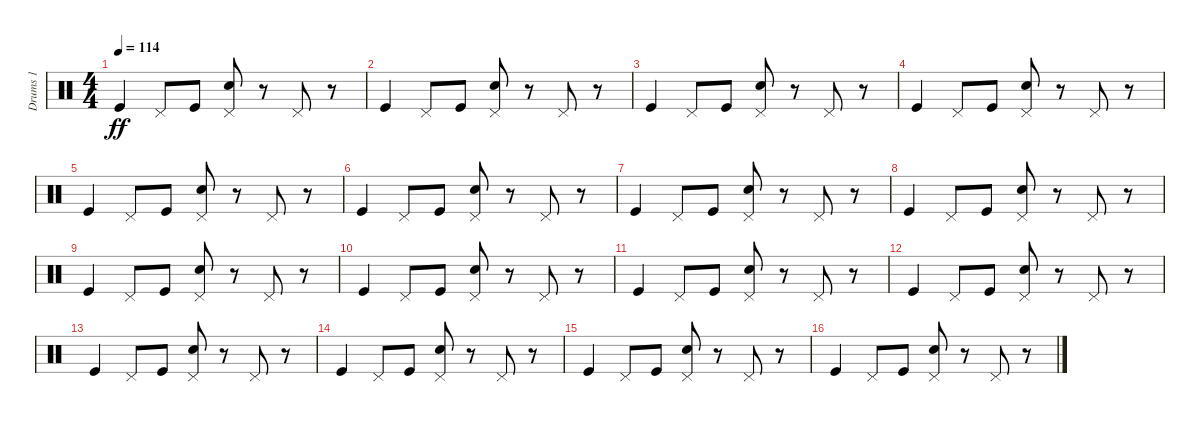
\track ("Drums 1" "Drums 1") {instrument percussion}
\staff {score}
\articulation defaults
\ts (4 4)
\tempo 114
\clef neutral
\ks c "Kick (hit)".4{dy ff} "Pedal Hi-Hat (hit)".8 "Kick (hit)".8
("Electric Snare (hit)" "Pedal Hi-Hat (hit)").8 r.8 "Pedal Hi-Hat (hit)".8 r.8 |
"Kick (hit)".4 "Pedal Hi-Hat (hit)".8 "Kick (hit)".8 ("Electric Snare (hit)" "Pedal Hi-Hat (hit)").8 r.8 "Pedal Hi-Hat (hit)".8 r.8 |
"Kick (hit)".4 "Pedal Hi-Hat (hit)".8 "Kick (hit)".8 ("Electric Snare (hit)" "Pedal Hi-Hat (hit)").8 r.8 "Pedal Hi-Hat (hit)".8 r.8 |
"Kick (hit)".4 "Pedal Hi-Hat (hit)".8 "Kick (hit)".8 ("Electric Snare (hit)" "Pedal Hi-Hat (hit)").8 r.8 "Pedal Hi-Hat (hit)".8 r.8 |
"Kick (hit)".4 "Pedal Hi-Hat (hit)".8 "Kick (hit)".8 ("Electric Snare (hit)" "Pedal Hi-Hat (hit)").8 r.8 "Pedal Hi-Hat (hit)".8 r.8 |
"Kick (hit)".4 "Pedal Hi-Hat (hit)".8 "Kick (hit)".8 ("Electric Snare (hit)" "Pedal Hi-Hat (hit)").8 r.8 "Pedal Hi-Hat (hit)".8 r.8 |
"Kick (hit)".4 "Pedal Hi-Hat (hit)".8 "Kick (hit)".8 ("Electric Snare (hit)" "Pedal Hi-Hat (hit)").8 r.8 "Pedal Hi-Hat (hit)".8 r.8 |
"Kick (hit)".4 "Pedal Hi-Hat (hit)".8 "Kick (hit)".8 ("Electric Snare (hit)" "Pedal Hi-Hat (hit)").8 r.8 "Pedal Hi-Hat (hit)".8 r.8 |
"Kick (hit)".4 "Pedal Hi-Hat (hit)".8 "Kick (hit)".8 ("Electric Snare (hit)" "Pedal Hi-Hat (hit)").8 r.8 "Pedal Hi-Hat (hit)".8 r.8 |
"Kick (hit)".4 "Pedal Hi-Hat (hit)".8 "Kick (hit)".8 ("Electric Snare (hit)" "Pedal Hi-Hat (hit)").8 r.8 "Pedal Hi-Hat (hit)".8 r.8 |
"Kick (hit)".4 "Pedal Hi-Hat (hit)".8 "Kick (hit)".8 ("Electric Snare (hit)" "Pedal Hi-Hat (hit)").8 r.8 "Pedal Hi-Hat (hit)".8 r.8 |
"Kick (hit)".4 "Pedal Hi-Hat (hit)".8 "Kick (hit)".8 ("Electric Snare (hit)" "Pedal Hi-Hat (hit)").8 r.8 "Pedal Hi-Hat (hit)".8 r.8 |
"Kick (hit)".4 "Pedal Hi-Hat (hit)".8 "Kick (hit)".8 ("Electric Snare (hit)" "Pedal Hi-Hat (hit)").8 r.8 "Pedal Hi-Hat (hit)".8 r.8 |
"Kick (hit)".4 "Pedal Hi-Hat (hit)".8 "Kick (hit)".8 ("Electric Snare (hit)" "Pedal Hi-Hat (hit)").8 r.8 "Pedal Hi-Hat (hit)".8 r.8 |
"Kick (hit)".4 "Pedal Hi-Hat (hit)".8 "Kick (hit)".8 ("Electric Snare (hit)" "Pedal Hi-Hat (hit)").8 r.8 "Pedal Hi-Hat (hit)".8 r.8 |
"Kick (hit)".4 "Pedal Hi-Hat (hit)".8 "Kick (hit)".8 ("Electric Snare (hit)" "Pedal Hi-Hat (hit)").8 r.8 "Pedal Hi-Hat (hit)".8 r.8
